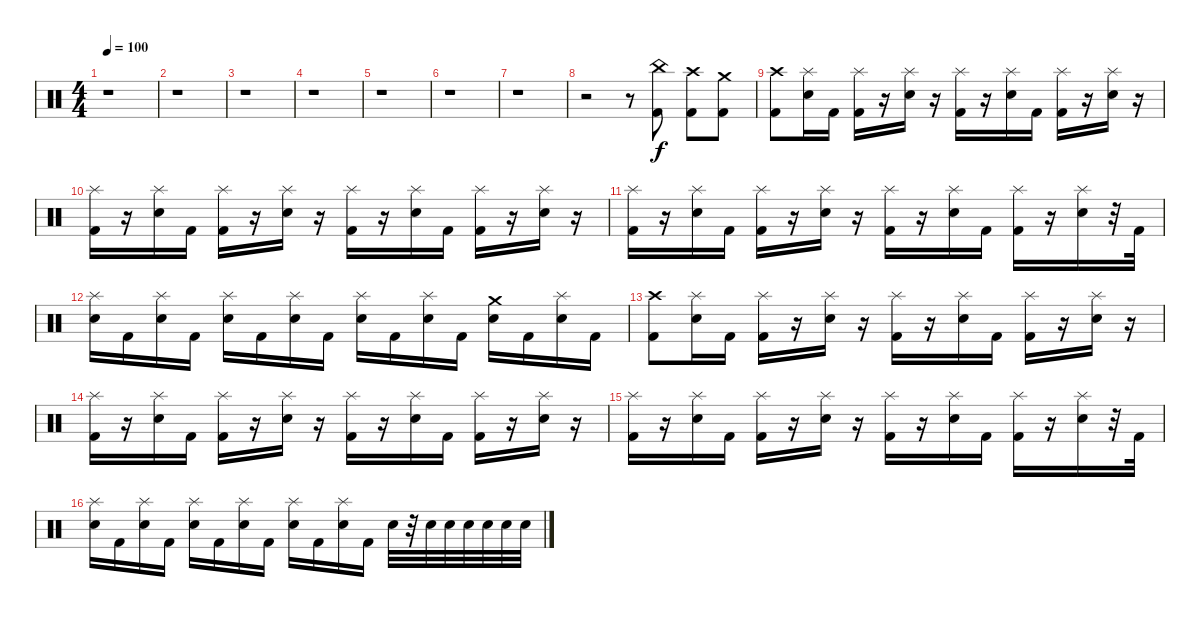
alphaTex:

\track "" {instrument percussion}
\staff {score}
\articulation defaults
\ts (4 4)
\tempo 100
\clef neutral
\ks c
r.1{dy f} |
r.1 |
r.1 |
r.1 |
r.1 |
r.1 |
r.1 |
r.2 r.8 ("China (hit)" "Kick (hit) 2").8 ("Crash high (hit)" "Kick (hit) 2").8 ("Crash medium (hit)" "Kick (hit) 2").8 |
("Kick (hit) 2" "Crash high (hit)").8 ("Splash (hit)" "Snare (hit) 2").16 "Kick (hit) 2".16 ("Splash (hit)" "Kick (hit) 2").16 r.16 ("Splash (hit)" "Snare (hit) 2").16 r.16 ("Splash (hit)" "Kick (hit) 2").16 r.16 ("Splash (hit)" "Snare (hit) 2").16 "Kick (hit) 2".16 ("Splash (hit)" "Kick (hit) 2").16 r.16 ("Splash (hit)" "Snare (hit) 2").16 r.16 |
("Splash (hit)" "Kick (hit) 2").16 r.16 ("Splash (hit)" "Snare (hit) 2").16 "Kick (hit) 2".16 ("Splash (hit)" "Kick (hit) 2").16 r.16 ("Splash (hit)" "Snare (hit) 2").16 r.16 ("Splash (hit)" "Kick (hit) 2").16 r.16 ("Splash (hit)" "Snare (hit) 2").16 "Kick (hit) 2".16 ("Splash (hit)" "Kick (hit) 2").16 r.16 ("Splash (hit)" "Snare (hit) 2").16 r.16 |
("Splash (hit)" "Kick (hit) 2").16 r.16 ("Splash (hit)" "Snare (hit) 2").16 "Kick (hit) 2".16 ("Splash (hit)" "Kick (hit) 2").16 r.16 ("Splash (hit)" "Snare (hit) 2").16 r.16 ("Splash (hit)" "Kick (hit) 2").16 r.16 ("Splash (hit)" "Snare (hit) 2").16 "Kick (hit) 2".16 ("Splash (hit)" "Kick (hit) 2").16 r.16 ("Splash (hit)" "Snare (hit) 2").16 r.32 "Kick (hit) 2".32 |
("Splash (hit)" "Snare (hit) 2").16 "Kick (hit) 2".16 ("Splash (hit)" "Snare (hit) 2").16 "Kick (hit) 2".16 ("Splash (hit)" "Snare (hit) 2").16 "Kick (hit) 2".16 ("Splash (hit)" "Snare (hit) 2").16 "Kick (hit) 2".16 ("Splash (hit)" "Snare (hit) 2").16 "Kick (hit) 2".16 ("Splash (hit)" "Snare (hit) 2").16 "Kick (hit) 2".16 ("Crash medium (hit)" "Snare (hit) 2").16 "Kick (hit) 2".16 ("Splash (hit)" "Snare (hit) 2").16 "Kick (hit) 2".16 |
("Kick (hit) 2" "Crash high (hit)").8 ("Splash (hit)" "Snare (hit) 2").16 "Kick (hit) 2".16 ("Splash (hit)" "Kick (hit) 2").16 r.16 ("Splash (hit)" "Snare (hit) 2").16 r.16 ("Splash (hit)" "Kick (hit) 2").16 r.16 ("Splash (hit)" "Snare (hit) 2").16 "Kick (hit) 2".16 ("Splash (hit)" "Kick (hit) 2").16 r.16 ("Splash (hit)" "Snare (hit) 2").16 r.16 |
("Splash (hit)" "Kick (hit) 2").16 r.16 ("Splash (hit)" "Snare (hit) 2").16 "Kick (hit) 2".16 ("Splash (hit)" "Kick (hit) 2").16 r.16 ("Splash (hit)" "Snare (hit) 2").16 r.16 ("Splash (hit)" "Kick (hit) 2").16 r.16 ("Splash (hit)" "Snare (hit) 2").16 "Kick (hit) 2".16 ("Splash (hit)" "Kick (hit) 2").16 r.16 ("Splash (hit)" "Snare (hit) 2").16 r.16 |
("Splash (hit)" "Kick (hit) 2").16 r.16 ("Splash (hit)" "Snare (hit) 2").16 "Kick (hit) 2".16 ("Splash (hit)" "Kick (hit) 2").16 r.16 ("Splash (hit)" "Snare (hit) 2").16 r.16 ("Splash (hit)" "Kick (hit) 2").16 r.16 ("Splash (hit)" "Snare (hit) 2").16 "Kick (hit) 2".16 ("Splash (hit)" "Kick (hit) 2").16 r.16 ("Splash (hit)" "Snare (hit) 2").16 r.32 "Kick (hit) 2".32 |
("Splash (hit)" "Snare (hit) 2").16 "Kick (hit) 2".16 ("Splash (hit)" "Snare (hit) 2").16 "Kick (hit) 2".16 ("Splash (hit)" "Snare (hit) 2").16 "Kick (hit) 2".16 ("Splash (hit)" "Snare (hit) 2").16 "Kick (hit) 2".16 ("Splash (hit)" "Snare (hit) 2").16 "Kick (hit) 2".16 ("Splash (hit)" "Snare (hit) 2").16 "Kick (hit) 2".16 "Snare (hit) 2".32 r.32 "Snare (hit) 2".32 "Snare (hit) 2".32 "Snare (hit) 2".32 "Snare (hit) 2".32 "Snare (hit) 2".32 "Snare (hit) 2".32
